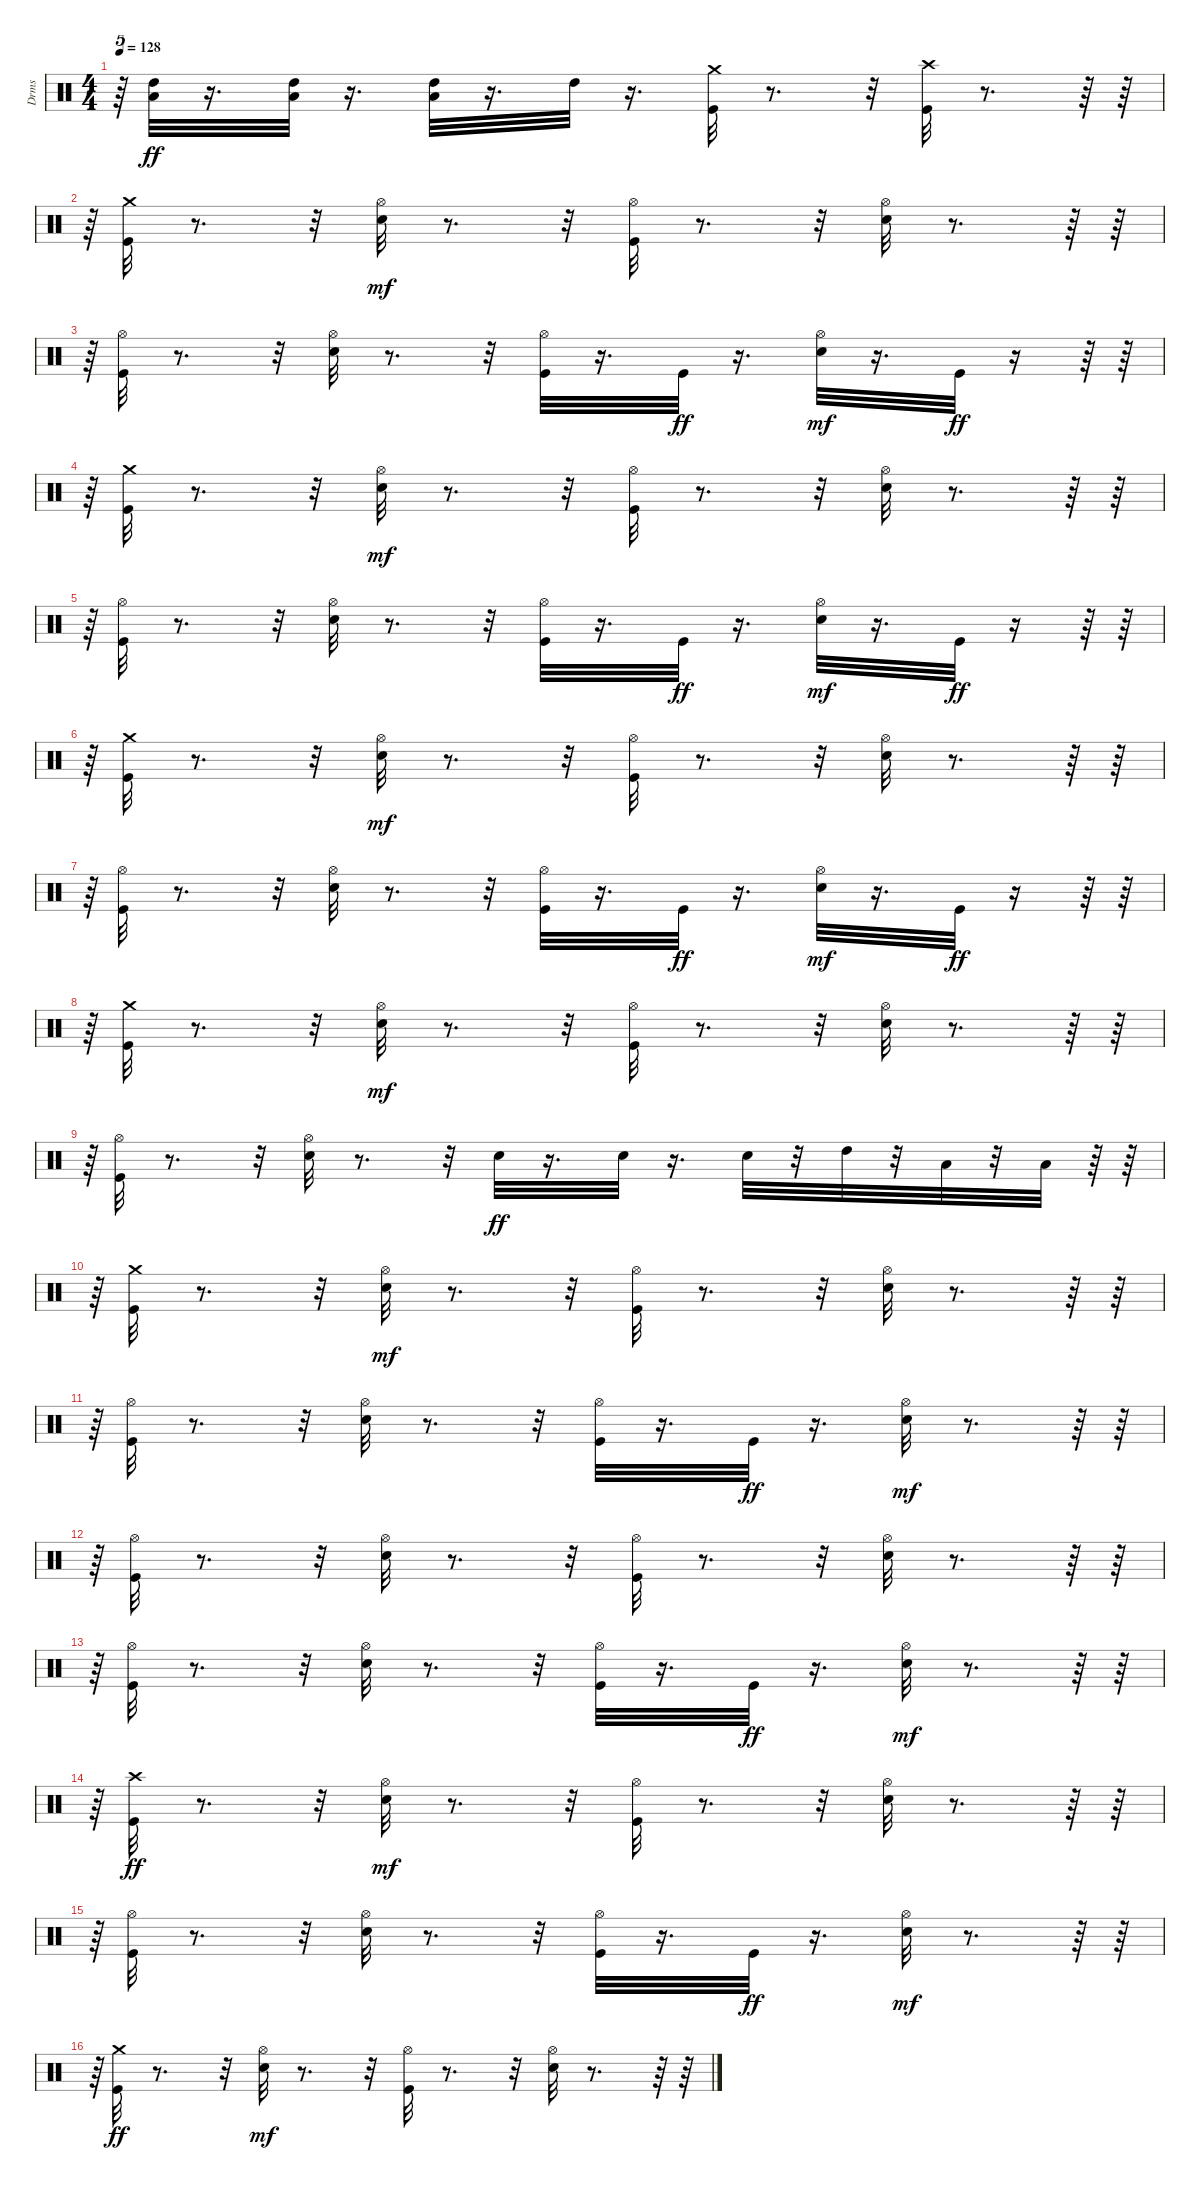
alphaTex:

\track ("Drms" "Drms") {instrument percussion}
\staff {score}
\articulation defaults
\ts (4 4)
\tempo 128
\clef neutral
\ks c
r.64{tu (5 4) dy mf} ("Low Tom (hit)" "High Tom (hit)").32{dy ff} r.16{d} ("Low Tom (hit)" "High Tom (hit)").32 r.16{d} ("Low Tom (hit)" "High Tom (hit)").32 r.16{d} "High Tom (hit)".32 r.16{d} ("Crash medium (hit)" "Kick (hit)").32 r.8{d} r.32 ("Crash high (hit)" "Kick (hit)").32 r.8{d} r.64 r.64 |
r.64{tu (5 4)} ("Kick (hit)" "Crash medium (hit)").32 r.8{d} r.32 ("Snare (hit) 2" "Hi-Hat (open)").32{dy mf} r.8{d} r.32 ("Kick (hit)" "Hi-Hat (open)").32 r.8{d} r.32 ("Snare (hit) 2" "Hi-Hat (open)").32 r.8{d} r.64 r.64 |
r.64{tu (5 4)} ("Kick (hit)" "Hi-Hat (open)").32 r.8{d} r.32 ("Snare (hit) 2" "Hi-Hat (open)").32 r.8{d} r.32 ("Kick (hit)" "Hi-Hat (open)").32 r.16{d} "Kick (hit)".32{dy ff} r.16{d} ("Snare (hit) 2" "Hi-Hat (open)").32{dy mf} r.16{d} "Kick (hit)".32{dy ff} r.16 r.64 r.64 |
r.64{tu (5 4)} ("Kick (hit)" "Crash medium (hit)").32 r.8{d} r.32 ("Snare (hit) 2" "Hi-Hat (open)").32{dy mf} r.8{d} r.32 ("Kick (hit)" "Hi-Hat (open)").32 r.8{d} r.32 ("Snare (hit) 2" "Hi-Hat (open)").32 r.8{d} r.64 r.64 |
r.64{tu (5 4)} ("Kick (hit)" "Hi-Hat (open)").32 r.8{d} r.32 ("Snare (hit) 2" "Hi-Hat (open)").32 r.8{d} r.32 ("Kick (hit)" "Hi-Hat (open)").32 r.16{d} "Kick (hit)".32{dy ff} r.16{d} ("Snare (hit) 2" "Hi-Hat (open)").32{dy mf} r.16{d} "Kick (hit)".32{dy ff} r.16 r.64 r.64 |
r.64{tu (5 4)} ("Kick (hit)" "Crash medium (hit)").32 r.8{d} r.32 ("Snare (hit) 2" "Hi-Hat (open)").32{dy mf} r.8{d} r.32 ("Kick (hit)" "Hi-Hat (open)").32 r.8{d} r.32 ("Snare (hit) 2" "Hi-Hat (open)").32 r.8{d} r.64 r.64 |
r.64{tu (5 4)} ("Kick (hit)" "Hi-Hat (open)").32 r.8{d} r.32 ("Snare (hit) 2" "Hi-Hat (open)").32 r.8{d} r.32 ("Kick (hit)" "Hi-Hat (open)").32 r.16{d} "Kick (hit)".32{dy ff} r.16{d} ("Snare (hit) 2" "Hi-Hat (open)").32{dy mf} r.16{d} "Kick (hit)".32{dy ff} r.16 r.64 r.64 |
r.64{tu (5 4)} ("Kick (hit)" "Crash medium (hit)").32 r.8{d} r.32 ("Snare (hit) 2" "Hi-Hat (open)").32{dy mf} r.8{d} r.32 ("Kick (hit)" "Hi-Hat (open)").32 r.8{d} r.32 ("Snare (hit) 2" "Hi-Hat (open)").32 r.8{d} r.64 r.64 |
r.64{tu (5 4)} ("Kick (hit)" "Hi-Hat (open)").32 r.8{d} r.32 ("Snare (hit) 2" "Hi-Hat (open)").32 r.8{d} r.32 "Snare (hit) 2".32{dy ff} r.16{d} "Snare (hit) 2".32 r.16{d} "Snare (hit) 2".32 r.32 "High Tom (hit)".32 r.32 "Low Tom (hit)".32 r.32 "Low Floor Tom (hit)".32 r.64 r.64 |
r.64{tu (5 4)} ("Kick (hit)" "Crash medium (hit)").32 r.8{d} r.32 ("Snare (hit) 2" "Hi-Hat (open)").32{dy mf} r.8{d} r.32 ("Kick (hit)" "Hi-Hat (open)").32 r.8{d} r.32 ("Snare (hit) 2" "Hi-Hat (open)").32 r.8{d} r.64 r.64 |
r.64{tu (5 4)} ("Kick (hit)" "Hi-Hat (open)").32 r.8{d} r.32 ("Snare (hit) 2" "Hi-Hat (open)").32 r.8{d} r.32 ("Kick (hit)" "Hi-Hat (open)").32 r.16{d} "Kick (hit)".32{dy ff} r.16{d} ("Snare (hit) 2" "Hi-Hat (open)").32{dy mf} r.8{d} r.64 r.64 |
r.64{tu (5 4)} ("Kick (hit)" "Hi-Hat (open)").32 r.8{d} r.32 ("Snare (hit) 2" "Hi-Hat (open)").32 r.8{d} r.32 ("Kick (hit)" "Hi-Hat (open)").32 r.8{d} r.32 ("Snare (hit) 2" "Hi-Hat (open)").32 r.8{d} r.64 r.64 |
r.64{tu (5 4)} ("Kick (hit)" "Hi-Hat (open)").32 r.8{d} r.32 ("Snare (hit) 2" "Hi-Hat (open)").32 r.8{d} r.32 ("Kick (hit)" "Hi-Hat (open)").32 r.16{d} "Kick (hit)".32{dy ff} r.16{d} ("Snare (hit) 2" "Hi-Hat (open)").32{dy mf} r.8{d} r.64 r.64 |
r.64{tu (5 4)} ("Kick (hit)" "Crash high (hit)").32{dy ff} r.8{d} r.32 ("Snare (hit) 2" "Hi-Hat (open)").32{dy mf} r.8{d} r.32 ("Kick (hit)" "Hi-Hat (open)").32 r.8{d} r.32 ("Snare (hit) 2" "Hi-Hat (open)").32 r.8{d} r.64 r.64 |
r.64{tu (5 4)} ("Kick (hit)" "Hi-Hat (open)").32 r.8{d} r.32 ("Snare (hit) 2" "Hi-Hat (open)").32 r.8{d} r.32 ("Kick (hit)" "Hi-Hat (open)").32 r.16{d} "Kick (hit)".32{dy ff} r.16{d} ("Snare (hit) 2" "Hi-Hat (open)").32{dy mf} r.8{d} r.64 r.64 |
r.64{tu (5 4)} ("Kick (hit)" "Crash medium (hit)").32{dy ff} r.8{d} r.32 ("Snare (hit) 2" "Hi-Hat (open)").32{dy mf} r.8{d} r.32 ("Kick (hit)" "Hi-Hat (open)").32 r.8{d} r.32 ("Snare (hit) 2" "Hi-Hat (open)").32 r.8{d} r.64 r.64
